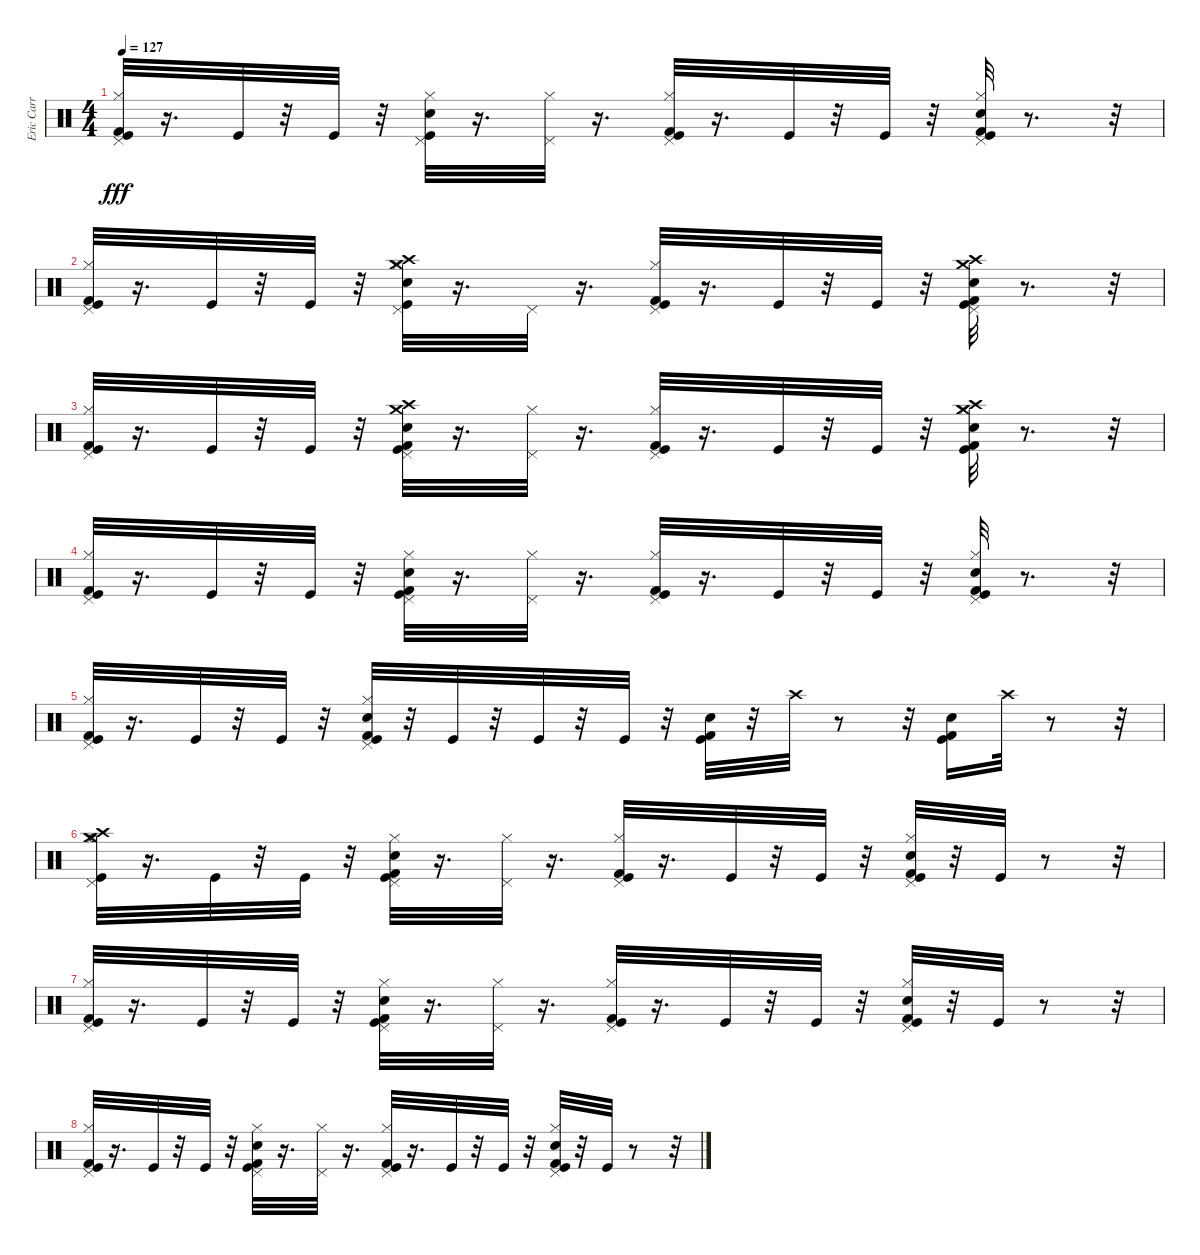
\track ("Eric Carr - Bateria" "Eric Carr ") {instrument percussion}
\staff {score}
\articulation defaults
\ts (4 4)
\tempo 127
\clef neutral
\ks c
("Kick (hit) 2" "Kick (hit)" "Hi-Hat (closed)" "Pedal Hi-Hat (hit)").32{dy fff} r.16{d} "Kick (hit)".32 r.32 "Kick (hit)".32 r.32 ("Kick (hit)" "Snare (hit) 2" "Hi-Hat (closed)" "Pedal Hi-Hat (hit)").32 r.16{d} ("Hi-Hat (closed)" "Pedal Hi-Hat (hit)").32 r.16{d} ("Hi-Hat (closed)" "Pedal Hi-Hat (hit)" "Kick (hit) 2" "Kick (hit)").32 r.16{d} "Kick (hit)".32 r.32 "Kick (hit)".32 r.32 ("Hi-Hat (closed)" "Pedal Hi-Hat (hit)" "Kick (hit)" "Kick (hit) 2" "Snare (hit) 2").32 r.8{d} r.32 |
("Kick (hit) 2" "Kick (hit)" "Hi-Hat (closed)" "Pedal Hi-Hat (hit)").32 r.16{d} "Kick (hit)".32 r.32 "Kick (hit)".32 r.32 ("Crash medium (hit)" "Crash high (hit)" "Snare (hit) 2" "Hi-Hat (closed)" "Pedal Hi-Hat (hit)" "Kick (hit)").32 r.16{d} "Pedal Hi-Hat (hit)".32 r.16{d} ("Hi-Hat (closed)" "Pedal Hi-Hat (hit)" "Kick (hit) 2" "Kick (hit)").32 r.16{d} "Kick (hit)".32 r.32 "Kick (hit)".32 r.32 ("Crash medium (hit)" "Crash high (hit)" "Pedal Hi-Hat (hit)" "Kick (hit)" "Kick (hit) 2" "Snare (hit) 2").32 r.8{d} r.32 |
("Kick (hit)" "Kick (hit) 2" "Hi-Hat (closed)" "Pedal Hi-Hat (hit)").32 r.16{d} "Kick (hit)".32 r.32 "Kick (hit)".32 r.32 ("Crash high (hit)" "Crash medium (hit)" "Pedal Hi-Hat (hit)" "Kick (hit) 2" "Kick (hit)" "Snare (hit) 2").32 r.16{d} ("Pedal Hi-Hat (hit)" "Hi-Hat (closed)").32 r.16{d} ("Kick (hit)" "Kick (hit) 2" "Hi-Hat (closed)" "Pedal Hi-Hat (hit)").32 r.16{d} "Kick (hit)".32 r.32 "Kick (hit)".32 r.32 ("Crash medium (hit)" "Crash high (hit)" "Snare (hit) 2" "Kick (hit) 2" "Kick (hit)" "Hi-Hat (closed)").32 r.8{d} r.32 |
("Kick (hit) 2" "Hi-Hat (closed)" "Pedal Hi-Hat (hit)" "Kick (hit)").32 r.16{d} "Kick (hit)".32 r.32 "Kick (hit)".32 r.32 ("Kick (hit)" "Snare (hit) 2" "Hi-Hat (closed)" "Kick (hit) 2" "Pedal Hi-Hat (hit)").32 r.16{d} ("Hi-Hat (closed)" "Pedal Hi-Hat (hit)").32 r.16{d} ("Kick (hit)" "Pedal Hi-Hat (hit)" "Hi-Hat (closed)" "Kick (hit) 2").32 r.16{d} "Kick (hit)".32 r.32 "Kick (hit)".32 r.32 ("Hi-Hat (closed)" "Snare (hit) 2" "Kick (hit)" "Pedal Hi-Hat (hit)" "Kick (hit) 2").32 r.8{d} r.32 |
("Kick (hit) 2" "Pedal Hi-Hat (hit)" "Hi-Hat (closed)" "Kick (hit)").32 r.16{d} "Kick (hit)".32 r.32 "Kick (hit)".32 r.32 ("Hi-Hat (closed)" "Pedal Hi-Hat (hit)" "Kick (hit)" "Snare (hit) 2" "Kick (hit) 2").32 r.32 "Kick (hit)".32 r.32 "Kick (hit)".32 r.32 "Kick (hit)".32 r.32 ("Snare (hit) 2" "Kick (hit)" "Kick (hit) 2").32 r.32 "Crash high (hit)".32 r.8 r.32 ("Snare (hit) 2" "Kick (hit) 2" "Kick (hit)").16 "Crash high (hit)".32 r.8 r.32 |
("Pedal Hi-Hat (hit)" "Hi-Hat (open)" "Hi-Hat (closed)" "Kick (hit)" "Crash high (hit)" "Crash medium (hit)").32 r.16{d} "Kick (hit)".32 r.32 "Kick (hit)".32 r.32 ("Snare (hit) 2" "Kick (hit)" "Hi-Hat (closed)" "Pedal Hi-Hat (hit)" "Kick (hit) 2").32 r.16{d} ("Hi-Hat (closed)" "Pedal Hi-Hat (hit)").32 r.16{d} ("Pedal Hi-Hat (hit)" "Kick (hit)" "Kick (hit) 2" "Hi-Hat (closed)").32 r.16{d} "Kick (hit)".32 r.32 "Kick (hit)".32 r.32 ("Pedal Hi-Hat (hit)" "Snare (hit) 2" "Kick (hit)" "Hi-Hat (closed)" "Kick (hit) 2").32 r.32 "Kick (hit)".32 r.8 r.32 |
("Hi-Hat (closed)" "Pedal Hi-Hat (hit)" "Kick (hit) 2" "Kick (hit)").32 r.16{d} "Kick (hit)".32 r.32 "Kick (hit)".32 r.32 ("Snare (hit) 2" "Kick (hit)" "Kick (hit) 2" "Pedal Hi-Hat (hit)" "Hi-Hat (closed)").32 r.16{d} ("Pedal Hi-Hat (hit)" "Hi-Hat (closed)").32 r.16{d} ("Hi-Hat (closed)" "Pedal Hi-Hat (hit)" "Kick (hit)" "Kick (hit) 2").32 r.16{d} "Kick (hit)".32 r.32 "Kick (hit)".32 r.32 ("Pedal Hi-Hat (hit)" "Kick (hit)" "Hi-Hat (closed)" "Kick (hit) 2" "Snare (hit) 2").32 r.32 "Kick (hit)".32 r.8 r.32 |
("Hi-Hat (closed)" "Pedal Hi-Hat (hit)" "Kick (hit)" "Kick (hit) 2").32 r.16{d} "Kick (hit)".32 r.32 "Kick (hit)".32 r.32 ("Pedal Hi-Hat (hit)" "Kick (hit) 2" "Hi-Hat (closed)" "Kick (hit)" "Snare (hit) 2").32 r.16{d} ("Hi-Hat (closed)" "Pedal Hi-Hat (hit)").32 r.16{d} ("Kick (hit) 2" "Pedal Hi-Hat (hit)" "Kick (hit)" "Hi-Hat (closed)").32 r.16{d} "Kick (hit)".32 r.32 "Kick (hit)".32 r.32 ("Snare (hit) 2" "Kick (hit) 2" "Kick (hit)" "Pedal Hi-Hat (hit)" "Hi-Hat (closed)").32 r.32 "Kick (hit)".32 r.8 r.32
